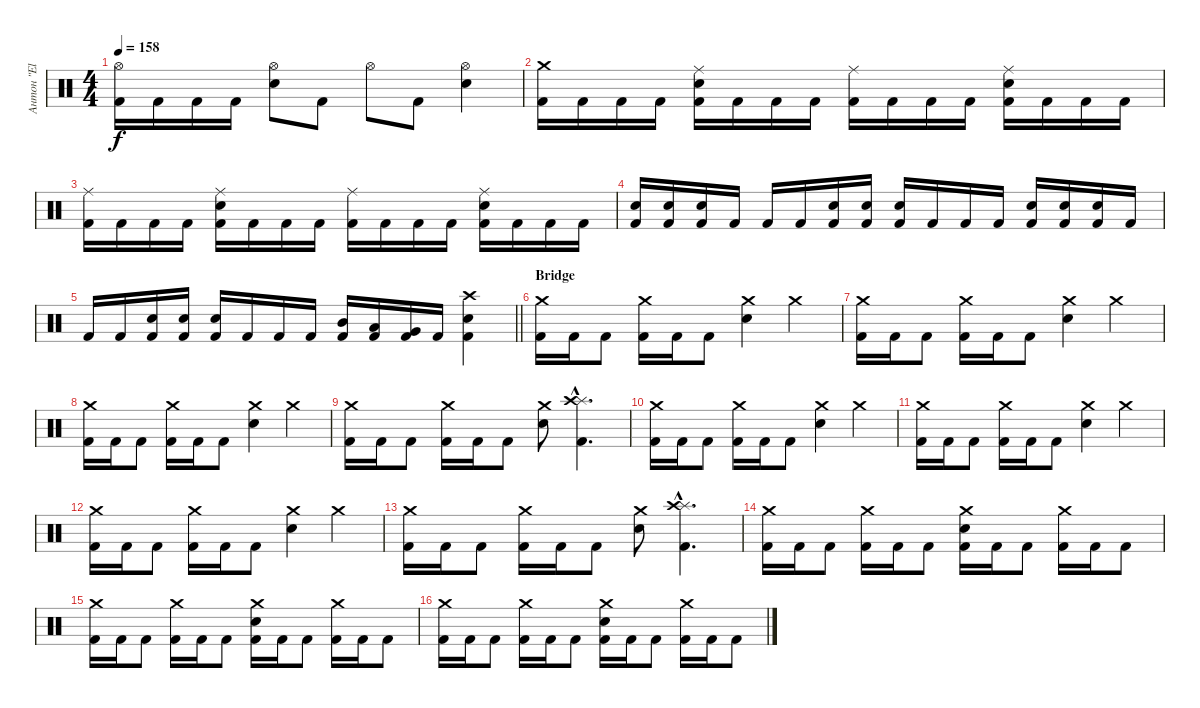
\track ("Антон \"El Bastardo\" Смольянин" "Антон \"El ") {instrument percussion}
\staff {score}
\articulation defaults
\ts (4 4)
\tempo 158
\clef neutral
\ks c
("Hi-Hat (open)" "Kick (hit) 2").16{dy f} "Kick (hit) 2".16 "Kick (hit) 2".16 "Kick (hit) 2".16 ("Hi-Hat (open)" "Electric Snare (hit)").8 "Kick (hit) 2".8 "Hi-Hat (open)".8 "Kick (hit) 2".8 ("Hi-Hat (open)" "Electric Snare (hit)").4 |
("Crash medium (hit)" "Kick (hit) 2").16 "Kick (hit) 2".16 "Kick (hit) 2".16 "Kick (hit) 2".16 ("Ride (middle)" "Electric Snare (hit)" "Kick (hit) 2").16 "Kick (hit) 2".16 "Kick (hit) 2".16 "Kick (hit) 2".16 ("Ride (middle)" "Kick (hit) 2").16 "Kick (hit) 2".16 "Kick (hit) 2".16 "Kick (hit) 2".16 ("Ride (middle)" "Electric Snare (hit)" "Kick (hit) 2").16 "Kick (hit) 2".16 "Kick (hit) 2".16 "Kick (hit) 2".16 |
("Ride (middle)" "Kick (hit) 2").16 "Kick (hit) 2".16 "Kick (hit) 2".16 "Kick (hit) 2".16 ("Ride (middle)" "Electric Snare (hit)" "Kick (hit) 2").16 "Kick (hit) 2".16 "Kick (hit) 2".16 "Kick (hit) 2".16 ("Ride (middle)" "Kick (hit) 2").16 "Kick (hit) 2".16 "Kick (hit) 2".16 "Kick (hit) 2".16 ("Ride (middle)" "Electric Snare (hit)" "Kick (hit) 2").16 "Kick (hit) 2".16 "Kick (hit) 2".16 "Kick (hit) 2".16 |
("Electric Snare (hit)" "Kick (hit) 2").16 ("Electric Snare (hit)" "Kick (hit) 2").16 ("Electric Snare (hit)" "Kick (hit) 2").16 "Kick (hit) 2".16 "Kick (hit) 2".16 "Kick (hit) 2".16 ("Electric Snare (hit)" "Kick (hit) 2").16 ("Electric Snare (hit)" "Kick (hit) 2").16 ("Electric Snare (hit)" "Kick (hit) 2").16 "Kick (hit) 2".16 "Kick (hit) 2".16 "Kick (hit) 2".16 ("Electric Snare (hit)" "Kick (hit) 2").16 ("Electric Snare (hit)" "Kick (hit) 2").16 ("Electric Snare (hit)" "Kick (hit) 2").16 "Kick (hit) 2".16 |
\barLineRight lightlight "Kick (hit) 2".16 "Kick (hit) 2".16
("Electric Snare (hit)" "Kick (hit) 2").16 ("Electric Snare (hit)" "Kick (hit) 2").16 ("Electric Snare (hit)" "Kick (hit) 2").16 "Kick (hit) 2".16 "Kick (hit) 2".16 "Kick (hit) 2".16 ("Mid Tom (hit)" "Kick (hit) 2").16 ("Low Tom (hit)" "Kick (hit) 2").16 ("Very Low Tom (hit)" "Kick (hit) 2").16 "Kick (hit) 2".16 ("Crash high (hit)" "Electric Snare (hit)" "Kick (hit) 2").4 |
\section ("" "Bridge")
("Crash medium (hit)" "Kick (hit) 2").16 "Kick (hit) 2".16 "Kick (hit) 2".8 ("Crash medium (hit)" "Kick (hit) 2").16 "Kick (hit) 2".16 "Kick (hit) 2".8 ("Crash medium (hit)" "Electric Snare (hit)").4 "Crash medium (hit)".4 |
("Crash medium (hit)" "Kick (hit) 2").16 "Kick (hit) 2".16 "Kick (hit) 2".8 ("Crash medium (hit)" "Kick (hit) 2").16 "Kick (hit) 2".16 "Kick (hit) 2".8 ("Crash medium (hit)" "Electric Snare (hit)").4 "Crash medium (hit)".4 |
("Crash medium (hit)" "Kick (hit) 2").16 "Kick (hit) 2".16 "Kick (hit) 2".8 ("Crash medium (hit)" "Kick (hit) 2").16 "Kick (hit) 2".16 "Kick (hit) 2".8 ("Crash medium (hit)" "Electric Snare (hit)").4 "Crash medium (hit)".4 |
("Crash medium (hit)" "Kick (hit) 2").16 "Kick (hit) 2".16 "Kick (hit) 2".8 ("Crash medium (hit)" "Kick (hit) 2").16 "Kick (hit) 2".16 "Kick (hit) 2".8 ("Crash medium (hit)" "Electric Snare (hit)").8 ("Splash (hit)"{hac} "Crash high (hit)"{hac} "Kick (hit) 2"{hac}).4{d} |
("Crash medium (hit)" "Kick (hit) 2").16 "Kick (hit) 2".16 "Kick (hit) 2".8 ("Crash medium (hit)" "Kick (hit) 2").16 "Kick (hit) 2".16 "Kick (hit) 2".8 ("Crash medium (hit)" "Electric Snare (hit)").4 "Crash medium (hit)".4 |
("Crash medium (hit)" "Kick (hit) 2").16 "Kick (hit) 2".16 "Kick (hit) 2".8 ("Crash medium (hit)" "Kick (hit) 2").16 "Kick (hit) 2".16 "Kick (hit) 2".8 ("Crash medium (hit)" "Electric Snare (hit)").4 "Crash medium (hit)".4 |
("Crash medium (hit)" "Kick (hit) 2").16 "Kick (hit) 2".16 "Kick (hit) 2".8 ("Crash medium (hit)" "Kick (hit) 2").16 "Kick (hit) 2".16 "Kick (hit) 2".8 ("Crash medium (hit)" "Electric Snare (hit)").4 "Crash medium (hit)".4 |
("Crash medium (hit)" "Kick (hit) 2").16 "Kick (hit) 2".16 "Kick (hit) 2".8 ("Crash medium (hit)" "Kick (hit) 2").16 "Kick (hit) 2".16 "Kick (hit) 2".8 ("Crash medium (hit)" "Electric Snare (hit)").8 ("Splash (hit)"{hac} "Crash high (hit)"{hac} "Kick (hit) 2"{hac}).4{d} |
("Crash medium (hit)" "Kick (hit) 2").16 "Kick (hit) 2".16 "Kick (hit) 2".8 ("Crash medium (hit)" "Kick (hit) 2").16 "Kick (hit) 2".16 "Kick (hit) 2".8 ("Crash medium (hit)" "Electric Snare (hit)" "Kick (hit) 2").16 "Kick (hit) 2".16 "Kick (hit) 2".8 ("Crash medium (hit)" "Kick (hit) 2").16 "Kick (hit) 2".16 "Kick (hit) 2".8 |
("Crash medium (hit)" "Kick (hit) 2").16 "Kick (hit) 2".16 "Kick (hit) 2".8 ("Crash medium (hit)" "Kick (hit) 2").16 "Kick (hit) 2".16 "Kick (hit) 2".8 ("Crash medium (hit)" "Electric Snare (hit)" "Kick (hit) 2").16 "Kick (hit) 2".16 "Kick (hit) 2".8 ("Crash medium (hit)" "Kick (hit) 2").16 "Kick (hit) 2".16 "Kick (hit) 2".8 |
("Crash medium (hit)" "Kick (hit) 2").16 "Kick (hit) 2".16 "Kick (hit) 2".8 ("Crash medium (hit)" "Kick (hit) 2").16 "Kick (hit) 2".16 "Kick (hit) 2".8 ("Crash medium (hit)" "Electric Snare (hit)" "Kick (hit) 2").16 "Kick (hit) 2".16 "Kick (hit) 2".8 ("Crash medium (hit)" "Kick (hit) 2").16 "Kick (hit) 2".16 "Kick (hit) 2".8
